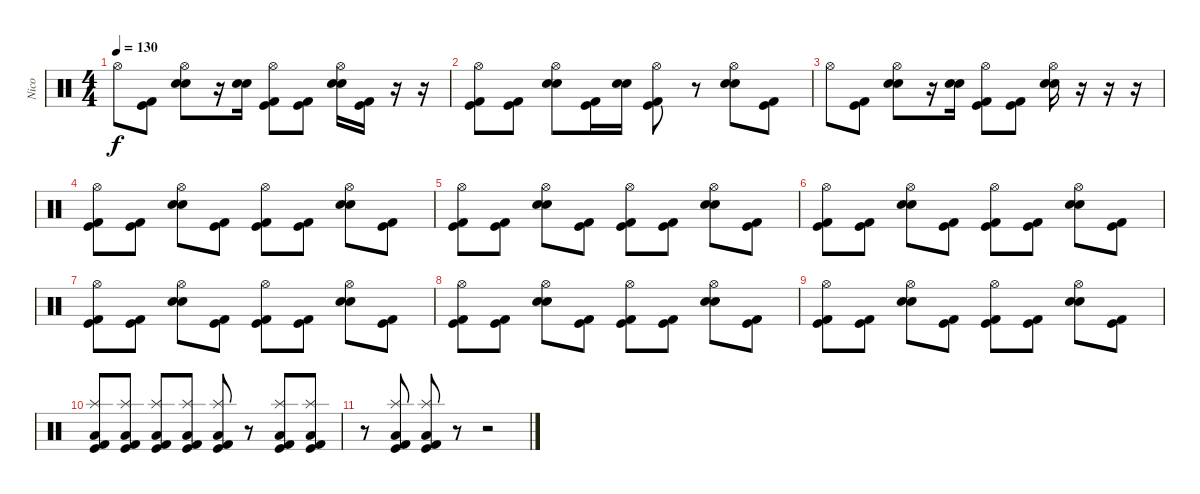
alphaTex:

\track ("Nico" "Nico") {instrument percussion}
\staff {score}
\articulation defaults
\ts (4 4)
\tempo 130
\clef neutral
\ks c "Hi-Hat (open)".8{dy f}
("Kick (hit) 2" "Kick (hit)").8 ("Hi-Hat (open)" "Electric Snare (hit)" "Electric Snare (hit)").8 r.16 ("Electric Snare (hit)" "Electric Snare (hit)").16 ("Hi-Hat (open)" "Kick (hit) 2" "Kick (hit)").8 ("Kick (hit) 2" "Kick (hit)").8 ("Hi-Hat (open)" "Electric Snare (hit)" "Electric Snare (hit)").16 ("Kick (hit) 2" "Kick (hit)").16 r.16 r.16 |
("Hi-Hat (open)" "Kick (hit) 2" "Kick (hit)").8 ("Kick (hit) 2" "Kick (hit)").8 ("Hi-Hat (open)" "Electric Snare (hit)" "Electric Snare (hit)").8 ("Kick (hit) 2" "Kick (hit)").16 ("Electric Snare (hit)" "Electric Snare (hit)").16 ("Hi-Hat (open)" "Kick (hit) 2" "Kick (hit)").8 r.8 ("Hi-Hat (open)" "Electric Snare (hit)" "Electric Snare (hit)").8 ("Kick (hit)" "Kick (hit) 2").8 |
"Hi-Hat (open)".8 ("Kick (hit) 2" "Kick (hit)").8 ("Hi-Hat (open)" "Electric Snare (hit)" "Electric Snare (hit)").8 r.16 ("Electric Snare (hit)" "Electric Snare (hit)").16 ("Hi-Hat (open)" "Kick (hit) 2" "Kick (hit)").8 ("Kick (hit) 2" "Kick (hit)").8 ("Hi-Hat (open)" "Electric Snare (hit)" "Electric Snare (hit)").16 r.16 r.16 r.16 |
("Hi-Hat (open)" "Kick (hit) 2" "Kick (hit)").8 ("Kick (hit) 2" "Kick (hit)").8 ("Hi-Hat (open)" "Electric Snare (hit)" "Electric Snare (hit)").8 ("Kick (hit)" "Kick (hit) 2").8 ("Hi-Hat (open)" "Kick (hit) 2" "Kick (hit)").8 ("Kick (hit) 2" "Kick (hit)").8 ("Hi-Hat (open)" "Electric Snare (hit)" "Electric Snare (hit)").8 ("Kick (hit)" "Kick (hit) 2").8 |
("Hi-Hat (open)" "Kick (hit) 2" "Kick (hit)").8 ("Kick (hit) 2" "Kick (hit)").8 ("Hi-Hat (open)" "Electric Snare (hit)" "Electric Snare (hit)").8 ("Kick (hit)" "Kick (hit) 2").8 ("Hi-Hat (open)" "Kick (hit) 2" "Kick (hit)").8 ("Kick (hit) 2" "Kick (hit)").8 ("Hi-Hat (open)" "Electric Snare (hit)" "Electric Snare (hit)").8 ("Kick (hit)" "Kick (hit) 2").8 |
("Hi-Hat (open)" "Kick (hit) 2" "Kick (hit)").8 ("Kick (hit) 2" "Kick (hit)").8 ("Hi-Hat (open)" "Electric Snare (hit)" "Electric Snare (hit)").8 ("Kick (hit)" "Kick (hit) 2").8 ("Hi-Hat (open)" "Kick (hit) 2" "Kick (hit)").8 ("Kick (hit) 2" "Kick (hit)").8 ("Hi-Hat (open)" "Electric Snare (hit)" "Electric Snare (hit)").8 ("Kick (hit)" "Kick (hit) 2").8 |
("Hi-Hat (open)" "Kick (hit) 2" "Kick (hit)").8 ("Kick (hit) 2" "Kick (hit)").8 ("Hi-Hat (open)" "Electric Snare (hit)" "Electric Snare (hit)").8 ("Kick (hit)" "Kick (hit) 2").8 ("Hi-Hat (open)" "Kick (hit) 2" "Kick (hit)").8 ("Kick (hit) 2" "Kick (hit)").8 ("Hi-Hat (open)" "Electric Snare (hit)" "Electric Snare (hit)").8 ("Kick (hit)" "Kick (hit) 2").8 |
("Hi-Hat (open)" "Kick (hit) 2" "Kick (hit)").8 ("Kick (hit) 2" "Kick (hit)").8 ("Hi-Hat (open)" "Electric Snare (hit)" "Electric Snare (hit)").8 ("Kick (hit)" "Kick (hit) 2").8 ("Hi-Hat (open)" "Kick (hit) 2" "Kick (hit)").8 ("Kick (hit) 2" "Kick (hit)").8 ("Hi-Hat (open)" "Electric Snare (hit)" "Electric Snare (hit)").8 ("Kick (hit)" "Kick (hit) 2").8 |
("Hi-Hat (open)" "Kick (hit) 2" "Kick (hit)").8 ("Kick (hit) 2" "Kick (hit)").8 ("Hi-Hat (open)" "Electric Snare (hit)" "Electric Snare (hit)").8 ("Kick (hit)" "Kick (hit) 2").8 ("Hi-Hat (open)" "Kick (hit) 2" "Kick (hit)").8 ("Kick (hit) 2" "Kick (hit)").8 ("Hi-Hat (open)" "Electric Snare (hit)" "Electric Snare (hit)").8 ("Kick (hit)" "Kick (hit) 2").8 |
("Splash (hit)" "Low Floor Tom (hit)" "Kick (hit) 2" "Kick (hit)").8 ("Splash (hit)" "Low Floor Tom (hit)" "Kick (hit) 2" "Kick (hit)").8 ("Splash (hit)" "Low Floor Tom (hit)" "Kick (hit) 2" "Kick (hit)").8 ("Splash (hit)" "Low Floor Tom (hit)" "Kick (hit)" "Kick (hit) 2").8 ("Splash (hit)" "Low Floor Tom (hit)" "Kick (hit) 2" "Kick (hit)").8 r.8 ("Splash (hit)" "Low Floor Tom (hit)" "Kick (hit) 2" "Kick (hit)").8 ("Splash (hit)" "Low Floor Tom (hit)" "Kick (hit)" "Kick (hit) 2").8 |
r.8 ("Splash (hit)" "Low Floor Tom (hit)" "Kick (hit) 2" "Kick (hit)").8 ("Splash (hit)" "Low Floor Tom (hit)" "Kick (hit) 2" "Kick (hit)").8 r.8 r.2
